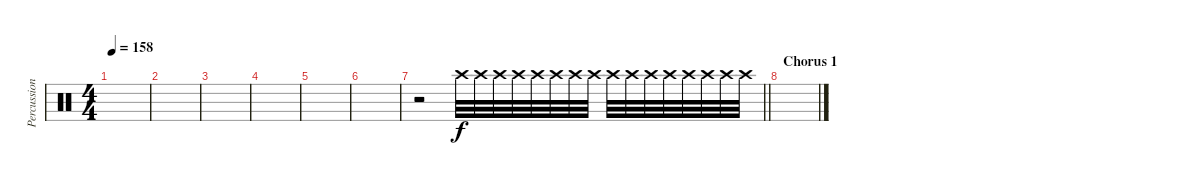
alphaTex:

\track ("Percussion" "Percussion") {instrument percussion}
\staff {score}
\articulation defaults
\ts (4 4)
\tempo 158
\clef neutral
\ks c
|
|
|
|
|
|
\barLineRight lightlight
r.2{volume 2} "Crash high (hit)".32{volume 13} "Crash high (hit)".32 "Crash high (hit)".32 "Crash high (hit)".32 "Crash high (hit)".32 "Crash high (hit)".32 "Crash high (hit)".32 "Crash high (hit)".32 "Crash high (hit)".32 "Crash high (hit)".32 "Crash high (hit)".32 "Crash high (hit)".32 "Crash high (hit)".32 "Crash high (hit)".32 "Crash high (hit)".32 "Crash high (hit)".32 |
\section ("" "Chorus 1")
